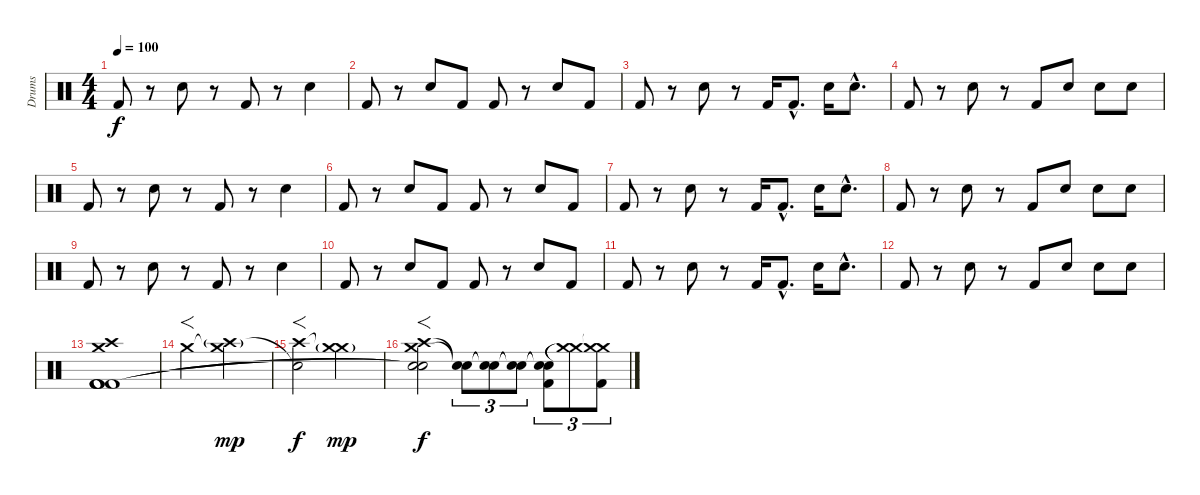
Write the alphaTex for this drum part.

\track ("Drums" "Drums") {instrument percussion}
\staff {score}
\articulation defaults
\ts (4 4)
\tempo 100
\clef neutral
\ks c "Kick (hit) 2".8{dy f}
r.8 "Snare (hit) 2".8 r.8 "Kick (hit) 2".8 r.8 "Snare (hit) 2".4 |
"Kick (hit) 2".8 r.8 "Snare (hit) 2".8 "Kick (hit) 2".8 "Kick (hit) 2".8 r.8 "Snare (hit) 2".8 "Kick (hit) 2".8 |
"Kick (hit) 2".8 r.8 "Snare (hit) 2".8 r.8 "Kick (hit) 2".16 "Kick (hit) 2"{hac}.8{d} "Snare (hit) 2".16 "Snare (hit) 2"{hac}.8{d} |
"Kick (hit) 2".8 r.8 "Snare (hit) 2".8 r.8 "Kick (hit) 2".8 "Snare (hit) 2".8 "Snare (hit) 2".8 "Snare (hit) 2".8 |
"Kick (hit) 2".8 r.8 "Snare (hit) 2".8 r.8 "Kick (hit) 2".8 r.8 "Snare (hit) 2".4 |
"Kick (hit) 2".8 r.8 "Snare (hit) 2".8 "Kick (hit) 2".8 "Kick (hit) 2".8 r.8 "Snare (hit) 2".8 "Kick (hit) 2".8 |
"Kick (hit) 2".8 r.8 "Snare (hit) 2".8 r.8 "Kick (hit) 2".16 "Kick (hit) 2"{hac}.8{d} "Snare (hit) 2".16 "Snare (hit) 2"{hac}.8{d} |
"Kick (hit) 2".8 r.8 "Snare (hit) 2".8 r.8 "Kick (hit) 2".8 "Snare (hit) 2".8 "Snare (hit) 2".8 "Snare (hit) 2".8 |
"Kick (hit) 2".8 r.8 "Snare (hit) 2".8 r.8 "Kick (hit) 2".8 r.8 "Snare (hit) 2".4 |
"Kick (hit) 2".8 r.8 "Snare (hit) 2".8 "Kick (hit) 2".8 "Kick (hit) 2".8 r.8 "Snare (hit) 2".8 "Kick (hit) 2".8 |
"Kick (hit) 2".8 r.8 "Snare (hit) 2".8 r.8 "Kick (hit) 2".16 "Kick (hit) 2"{hac}.8{d} "Snare (hit) 2".16 "Snare (hit) 2"{hac}.8{d} |
"Kick (hit) 2".8 r.8 "Snare (hit) 2".8 r.8 "Kick (hit) 2".8 "Snare (hit) 2".8 "Snare (hit) 2".8 "Snare (hit) 2".8 |
("Crash medium (hit)" "Crash high (hit)" "Kick (hit) 2" "Kick (hit) 2" "Kick (hit) 2" "Kick (hit) 2").1 |
"Crash medium (hit)".2{f} ("Crash medium (hit)"{t} "Crash high (hit)"{g}).2{dy mp} |
("Crash high (hit)" "Snare (hit)"{t}).2{f dy f} ("Crash medium (hit)"{t} "Crash medium (hit)"{g}).2{dy mp} |
("Crash medium (hit)" "Crash high (hit)" "Snare (hit)"{t} "Snare (hit)"{t}).2{f dy f} ("Snare (hit)"{t} "Snare (hit)"{t}).8{tu (3 2)} ("Snare (hit)"{t} "Snare (hit)"{t}).8{tu (3 2)} ("Snare (hit)"{t} "Snare (hit)"{t}).8{tu (3 2)} ("Snare (hit)"{t} "Snare (hit)"{t} "Kick (hit) 2").8{tu (3 2)} ("Crash medium (hit)"{t} "Crash medium (hit)"{t}).8{tu (3 2)} ("Crash medium (hit)"{t} "Crash medium (hit)"{t} "Kick (hit) 2").8{tu (3 2)}
